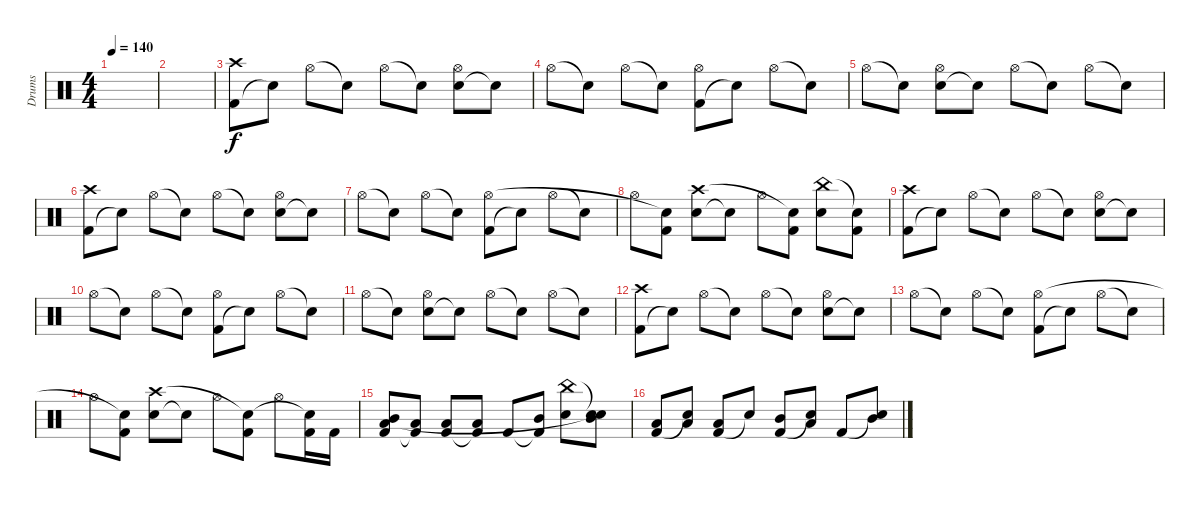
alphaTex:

\track ("Drums" "Drums") {instrument percussion}
\staff {score}
\articulation defaults
\ts (4 4)
\tempo 140
\clef neutral
\ks c
|
|
("Kick (hit) 2" "Crash high (hit)").8 "Snare (hit)"{t}.8 "Hi-Hat (open)".8 "Snare (hit)"{t}.8 "Hi-Hat (open)".8 "Snare (hit)"{t}.8 ("Electric Snare (hit)" "Hi-Hat (open)").8 "Snare (hit)"{t}.8 |
"Hi-Hat (open)".8 "Snare (hit)"{t}.8 "Hi-Hat (open)".8 "Snare (hit)"{t}.8 ("Kick (hit) 2" "Hi-Hat (open)").8 "Snare (hit)"{t}.8 "Hi-Hat (open)".8 "Snare (hit)"{t}.8 |
"Hi-Hat (open)".8 "Snare (hit)"{t}.8 ("Electric Snare (hit)" "Hi-Hat (open)").8 "Snare (hit)"{t}.8 "Hi-Hat (open)".8 "Snare (hit)"{t}.8 "Hi-Hat (open)".8 "Snare (hit)"{t}.8 |
("Kick (hit) 2" "Crash high (hit)").8 "Snare (hit)"{t}.8 "Hi-Hat (open)".8 "Snare (hit)"{t}.8 "Hi-Hat (open)".8 "Snare (hit)"{t}.8 ("Electric Snare (hit)" "Hi-Hat (open)").8 "Snare (hit)"{t}.8 |
"Hi-Hat (open)".8 "Snare (hit)"{t}.8 "Hi-Hat (open)".8 "Snare (hit)"{t}.8 ("Kick (hit) 2" "Hi-Hat (open)").8 "Snare (hit)"{t}.8 "Hi-Hat (open)".8 "Snare (hit)"{t}.8 |
"Hi-Hat (open)".8 ("Kick (hit) 2" "Snare (hit)"{t}).8 ("Electric Snare (hit)" "Crash high (hit)").8 "Snare (hit)"{t}.8 "Hi-Hat (open)".8 ("Kick (hit) 2" "Snare (hit)"{t}).8 ("Electric Snare (hit)" "China (hit)").8 ("Kick (hit) 2" "Snare (hit)"{t}).8 |
("Kick (hit) 2" "Crash high (hit)").8 "Snare (hit)"{t}.8 "Hi-Hat (open)".8 "Snare (hit)"{t}.8 "Hi-Hat (open)".8 "Snare (hit)"{t}.8 ("Electric Snare (hit)" "Hi-Hat (open)").8 "Snare (hit)"{t}.8 |
"Hi-Hat (open)".8 "Snare (hit)"{t}.8 "Hi-Hat (open)".8 "Snare (hit)"{t}.8 ("Kick (hit) 2" "Hi-Hat (open)").8 "Snare (hit)"{t}.8 "Hi-Hat (open)".8 "Snare (hit)"{t}.8 |
"Hi-Hat (open)".8 "Snare (hit)"{t}.8 ("Electric Snare (hit)" "Hi-Hat (open)").8 "Snare (hit)"{t}.8 "Hi-Hat (open)".8 "Snare (hit)"{t}.8 "Hi-Hat (open)".8 "Snare (hit)"{t}.8 |
("Kick (hit) 2" "Crash high (hit)").8 "Snare (hit)"{t}.8 "Hi-Hat (open)".8 "Snare (hit)"{t}.8 "Hi-Hat (open)".8 "Snare (hit)"{t}.8 ("Electric Snare (hit)" "Hi-Hat (open)").8 "Snare (hit)"{t}.8 |
"Hi-Hat (open)".8 "Snare (hit)"{t}.8 "Hi-Hat (open)".8 "Snare (hit)"{t}.8 ("Kick (hit) 2" "Hi-Hat (open)").8 "Snare (hit)"{t}.8 "Hi-Hat (open)".8 "Snare (hit)"{t}.8 |
"Hi-Hat (open)".8 ("Kick (hit) 2" "Snare (hit)"{t}).8 ("Electric Snare (hit)" "Crash high (hit)").8 "Snare (hit)"{t}.8 "Hi-Hat (open)".8 ("Kick (hit) 2" "Snare (hit)"{t}).8 "Hi-Hat (open)".8 ("Kick (hit) 2" "Snare (hit)"{t}).16 "Kick (hit) 2".16 |
("Kick (hit) 2" "Mid Tom (hit)" "Low Tom (hit)").8 ("Kick (hit) 2"{t} "Low Tom (hit)").8 ("Kick (hit) 2" "Low Tom (hit)").8 ("Kick (hit) 2"{t} "Low Tom (hit)").8 "Kick (hit) 2".8 ("Kick (hit) 2"{t} "Mid Tom (hit)").8 ("Electric Snare (hit)" "China (hit)").8 ("Mid Tom (hit)" "Snare (hit)"{t} "Snare (hit)"{t}).8 |
("Kick (hit) 2" "Low Tom (hit)").8 ("Snare (hit)"{t} "Low Tom (hit)").8 ("Kick (hit) 2" "Low Tom (hit)").8 "Snare (hit)"{t}.8 ("Kick (hit) 2" "Mid Tom (hit)").8 ("Snare (hit)"{t} "Low Tom (hit)").8 "Kick (hit) 2".8 ("Snare (hit)"{t} "Mid Tom (hit)").8
